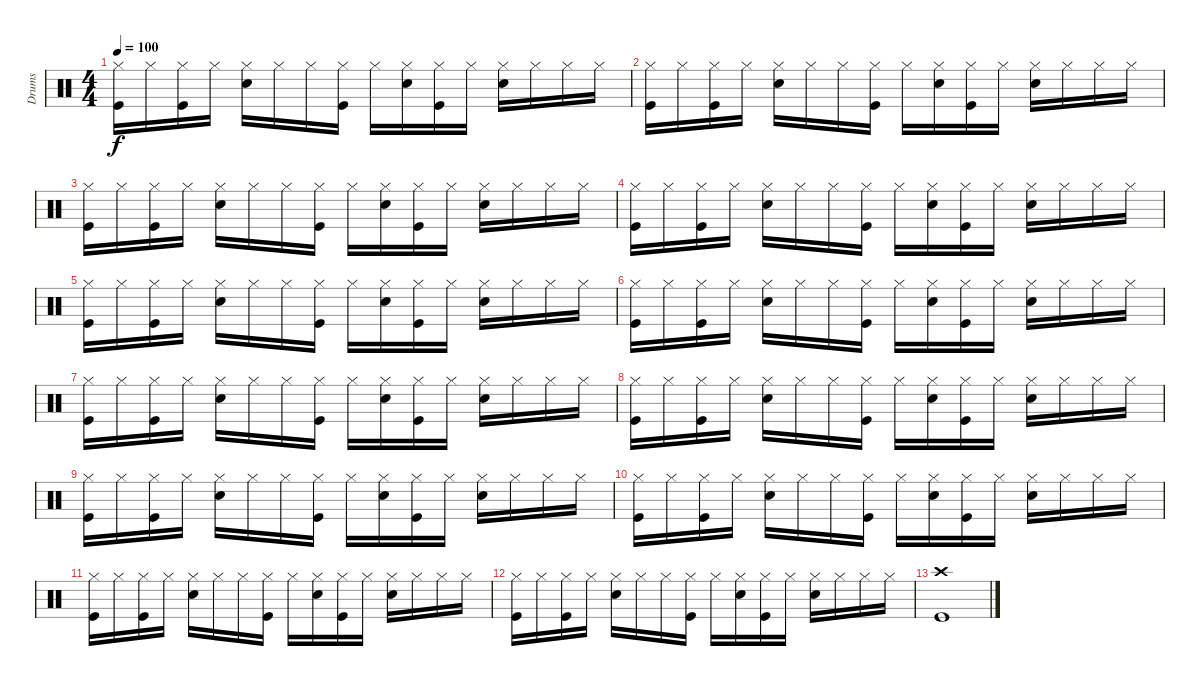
\track ("Drums" "Drums") {instrument percussion}
\staff {score}
\articulation defaults
\ts (4 4)
\tempo 100
\clef neutral
\ks c
("Hi-Hat (closed)" "Kick (hit)").16{dy f} "Hi-Hat (closed)"{x}.16 ("Hi-Hat (closed)" "Kick (hit)").16 "Hi-Hat (closed)"{x}.16 ("Hi-Hat (closed)" "Electric Snare (hit)").16 "Hi-Hat (closed)"{x}.16 "Hi-Hat (closed)".16 ("Hi-Hat (closed)"{x} "Kick (hit)").16 "Hi-Hat (closed)".16 ("Hi-Hat (closed)"{x} "Electric Snare (hit)").16 ("Hi-Hat (closed)" "Kick (hit)").16 "Hi-Hat (closed)"{x}.16 ("Hi-Hat (closed)" "Electric Snare (hit)").16 "Hi-Hat (closed)"{x}.16 "Hi-Hat (closed)".16 "Hi-Hat (closed)"{x}.16 |
("Hi-Hat (closed)" "Kick (hit)").16 "Hi-Hat (closed)"{x}.16 ("Hi-Hat (closed)" "Kick (hit)").16 "Hi-Hat (closed)"{x}.16 ("Hi-Hat (closed)" "Electric Snare (hit)").16 "Hi-Hat (closed)"{x}.16 "Hi-Hat (closed)".16 ("Hi-Hat (closed)"{x} "Kick (hit)").16 "Hi-Hat (closed)".16 ("Hi-Hat (closed)"{x} "Electric Snare (hit)").16 ("Hi-Hat (closed)" "Kick (hit)").16 "Hi-Hat (closed)"{x}.16 ("Hi-Hat (closed)" "Electric Snare (hit)").16 "Hi-Hat (closed)"{x}.16 "Hi-Hat (closed)".16 "Hi-Hat (closed)"{x}.16 |
("Hi-Hat (closed)" "Kick (hit)").16 "Hi-Hat (closed)"{x}.16 ("Hi-Hat (closed)" "Kick (hit)").16 "Hi-Hat (closed)"{x}.16 ("Hi-Hat (closed)" "Electric Snare (hit)").16 "Hi-Hat (closed)"{x}.16 "Hi-Hat (closed)".16 ("Hi-Hat (closed)"{x} "Kick (hit)").16 "Hi-Hat (closed)".16 ("Hi-Hat (closed)"{x} "Electric Snare (hit)").16 ("Hi-Hat (closed)" "Kick (hit)").16 "Hi-Hat (closed)"{x}.16 ("Hi-Hat (closed)" "Electric Snare (hit)").16 "Hi-Hat (closed)"{x}.16 "Hi-Hat (closed)".16 "Hi-Hat (closed)"{x}.16 |
("Hi-Hat (closed)" "Kick (hit)").16 "Hi-Hat (closed)"{x}.16 ("Hi-Hat (closed)" "Kick (hit)").16 "Hi-Hat (closed)"{x}.16 ("Hi-Hat (closed)" "Electric Snare (hit)").16 "Hi-Hat (closed)"{x}.16 "Hi-Hat (closed)".16 ("Hi-Hat (closed)"{x} "Kick (hit)").16 "Hi-Hat (closed)".16 ("Hi-Hat (closed)"{x} "Electric Snare (hit)").16 ("Hi-Hat (closed)" "Kick (hit)").16 "Hi-Hat (closed)"{x}.16 ("Hi-Hat (closed)" "Electric Snare (hit)").16 "Hi-Hat (closed)"{x}.16 "Hi-Hat (closed)".16 "Hi-Hat (closed)"{x}.16 |
("Hi-Hat (closed)" "Kick (hit)").16 "Hi-Hat (closed)"{x}.16 ("Hi-Hat (closed)" "Kick (hit)").16 "Hi-Hat (closed)"{x}.16 ("Hi-Hat (closed)" "Electric Snare (hit)").16 "Hi-Hat (closed)"{x}.16 "Hi-Hat (closed)".16 ("Hi-Hat (closed)"{x} "Kick (hit)").16 "Hi-Hat (closed)".16 ("Hi-Hat (closed)"{x} "Electric Snare (hit)").16 ("Hi-Hat (closed)" "Kick (hit)").16 "Hi-Hat (closed)"{x}.16 ("Hi-Hat (closed)" "Electric Snare (hit)").16 "Hi-Hat (closed)"{x}.16 "Hi-Hat (closed)".16 "Hi-Hat (closed)"{x}.16 |
("Hi-Hat (closed)" "Kick (hit)").16 "Hi-Hat (closed)"{x}.16 ("Hi-Hat (closed)" "Kick (hit)").16 "Hi-Hat (closed)"{x}.16 ("Hi-Hat (closed)" "Electric Snare (hit)").16 "Hi-Hat (closed)"{x}.16 "Hi-Hat (closed)".16 ("Hi-Hat (closed)"{x} "Kick (hit)").16 "Hi-Hat (closed)".16 ("Hi-Hat (closed)"{x} "Electric Snare (hit)").16 ("Hi-Hat (closed)" "Kick (hit)").16 "Hi-Hat (closed)"{x}.16 ("Hi-Hat (closed)" "Electric Snare (hit)").16 "Hi-Hat (closed)"{x}.16 "Hi-Hat (closed)".16 "Hi-Hat (closed)"{x}.16 |
("Hi-Hat (closed)" "Kick (hit)").16 "Hi-Hat (closed)"{x}.16 ("Hi-Hat (closed)" "Kick (hit)").16 "Hi-Hat (closed)"{x}.16 ("Hi-Hat (closed)" "Electric Snare (hit)").16 "Hi-Hat (closed)"{x}.16 "Hi-Hat (closed)".16 ("Hi-Hat (closed)"{x} "Kick (hit)").16 "Hi-Hat (closed)".16 ("Hi-Hat (closed)"{x} "Electric Snare (hit)").16 ("Hi-Hat (closed)" "Kick (hit)").16 "Hi-Hat (closed)"{x}.16 ("Hi-Hat (closed)" "Electric Snare (hit)").16 "Hi-Hat (closed)"{x}.16 "Hi-Hat (closed)".16 "Hi-Hat (closed)"{x}.16 |
("Hi-Hat (closed)" "Kick (hit)").16 "Hi-Hat (closed)"{x}.16 ("Hi-Hat (closed)" "Kick (hit)").16 "Hi-Hat (closed)"{x}.16 ("Hi-Hat (closed)" "Electric Snare (hit)").16 "Hi-Hat (closed)"{x}.16 "Hi-Hat (closed)".16 ("Hi-Hat (closed)"{x} "Kick (hit)").16 "Hi-Hat (closed)".16 ("Hi-Hat (closed)"{x} "Electric Snare (hit)").16 ("Hi-Hat (closed)" "Kick (hit)").16 "Hi-Hat (closed)"{x}.16 ("Hi-Hat (closed)" "Electric Snare (hit)").16 "Hi-Hat (closed)"{x}.16 "Hi-Hat (closed)".16 "Hi-Hat (closed)"{x}.16 |
("Hi-Hat (closed)" "Kick (hit)").16 "Hi-Hat (closed)"{x}.16 ("Hi-Hat (closed)" "Kick (hit)").16 "Hi-Hat (closed)"{x}.16 ("Hi-Hat (closed)" "Electric Snare (hit)").16 "Hi-Hat (closed)"{x}.16 "Hi-Hat (closed)".16 ("Hi-Hat (closed)"{x} "Kick (hit)").16 "Hi-Hat (closed)".16 ("Hi-Hat (closed)"{x} "Electric Snare (hit)").16 ("Hi-Hat (closed)" "Kick (hit)").16 "Hi-Hat (closed)"{x}.16 ("Hi-Hat (closed)" "Electric Snare (hit)").16 "Hi-Hat (closed)"{x}.16 "Hi-Hat (closed)".16 "Hi-Hat (closed)"{x}.16 |
("Hi-Hat (closed)" "Kick (hit)").16 "Hi-Hat (closed)"{x}.16 ("Hi-Hat (closed)" "Kick (hit)").16 "Hi-Hat (closed)"{x}.16 ("Hi-Hat (closed)" "Electric Snare (hit)").16 "Hi-Hat (closed)"{x}.16 "Hi-Hat (closed)".16 ("Hi-Hat (closed)"{x} "Kick (hit)").16 "Hi-Hat (closed)".16 ("Hi-Hat (closed)"{x} "Electric Snare (hit)").16 ("Hi-Hat (closed)" "Kick (hit)").16 "Hi-Hat (closed)"{x}.16 ("Hi-Hat (closed)" "Electric Snare (hit)").16 "Hi-Hat (closed)"{x}.16 "Hi-Hat (closed)".16 "Hi-Hat (closed)"{x}.16 |
("Hi-Hat (closed)" "Kick (hit)").16 "Hi-Hat (closed)"{x}.16 ("Hi-Hat (closed)" "Kick (hit)").16 "Hi-Hat (closed)"{x}.16 ("Hi-Hat (closed)" "Electric Snare (hit)").16 "Hi-Hat (closed)"{x}.16 "Hi-Hat (closed)".16 ("Hi-Hat (closed)"{x} "Kick (hit)").16 "Hi-Hat (closed)".16 ("Hi-Hat (closed)"{x} "Electric Snare (hit)").16 ("Hi-Hat (closed)" "Kick (hit)").16 "Hi-Hat (closed)"{x}.16 ("Hi-Hat (closed)" "Electric Snare (hit)").16 "Hi-Hat (closed)"{x}.16 "Hi-Hat (closed)".16 "Hi-Hat (closed)"{x}.16 |
("Hi-Hat (closed)" "Kick (hit)").16 "Hi-Hat (closed)"{x}.16 ("Hi-Hat (closed)" "Kick (hit)").16 "Hi-Hat (closed)"{x}.16 ("Hi-Hat (closed)" "Electric Snare (hit)").16 "Hi-Hat (closed)"{x}.16 "Hi-Hat (closed)".16 ("Hi-Hat (closed)"{x} "Kick (hit)").16 "Hi-Hat (closed)".16 ("Hi-Hat (closed)"{x} "Electric Snare (hit)").16 ("Hi-Hat (closed)" "Kick (hit)").16 "Hi-Hat (closed)"{x}.16 ("Hi-Hat (closed)" "Electric Snare (hit)").16 "Hi-Hat (closed)"{x}.16 "Hi-Hat (closed)".16 "Hi-Hat (closed)"{x}.16 |
("Crash high (hit)" "Kick (hit)").1
